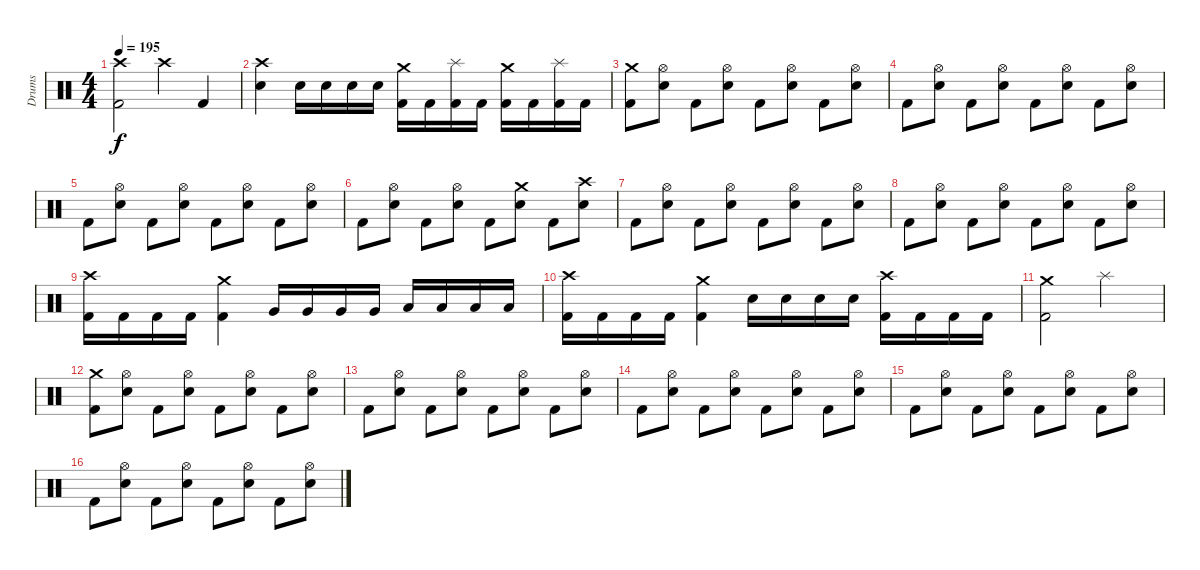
\track ("Drums" "Drums") {instrument percussion}
\staff {score}
\articulation defaults
\ts (4 4)
\tempo 195
\clef neutral
\ks c
("Crash high (hit)" "Kick (hit) 2").2{dy f} "Crash high (hit)".4 "Kick (hit) 2".4 |
("Crash high (hit)" "Snare (hit) 2").4 "Snare (hit) 2".16 "Snare (hit) 2".16 "Snare (hit) 2".16 "Snare (hit) 2".16 ("Crash medium (hit)" "Kick (hit) 2").16 "Kick (hit) 2".16 ("Splash (hit)" "Kick (hit) 2").16 "Kick (hit) 2".16 ("Crash medium (hit)" "Kick (hit) 2").16 "Kick (hit) 2".16 ("Splash (hit)" "Kick (hit) 2").16 "Kick (hit) 2".16 |
("Crash medium (hit)" "Kick (hit) 2").8 ("Hi-Hat (open)" "Snare (hit) 2").8 "Kick (hit) 2".8 ("Hi-Hat (open)" "Snare (hit) 2").8 "Kick (hit) 2".8 ("Hi-Hat (open)" "Snare (hit) 2").8 "Kick (hit) 2".8 ("Hi-Hat (open)" "Snare (hit) 2").8 |
"Kick (hit) 2".8 ("Hi-Hat (open)" "Snare (hit) 2").8 "Kick (hit) 2".8 ("Hi-Hat (open)" "Snare (hit) 2").8 "Kick (hit) 2".8 ("Hi-Hat (open)" "Snare (hit) 2").8 "Kick (hit) 2".8 ("Hi-Hat (open)" "Snare (hit) 2").8 |
"Kick (hit) 2".8 ("Hi-Hat (open)" "Snare (hit) 2").8 "Kick (hit) 2".8 ("Hi-Hat (open)" "Snare (hit) 2").8 "Kick (hit) 2".8 ("Hi-Hat (open)" "Snare (hit) 2").8 "Kick (hit) 2".8 ("Hi-Hat (open)" "Snare (hit) 2").8 |
"Kick (hit) 2".8 ("Hi-Hat (open)" "Snare (hit) 2").8 "Kick (hit) 2".8 ("Hi-Hat (open)" "Snare (hit) 2").8 "Kick (hit) 2".8 ("Crash medium (hit)" "Snare (hit) 2").8 "Kick (hit) 2".8 ("Crash high (hit)" "Snare (hit) 2").8 |
"Kick (hit) 2".8 ("Hi-Hat (open)" "Snare (hit) 2").8 "Kick (hit) 2".8 ("Hi-Hat (open)" "Snare (hit) 2").8 "Kick (hit) 2".8 ("Hi-Hat (open)" "Snare (hit) 2").8 "Kick (hit) 2".8 ("Hi-Hat (open)" "Snare (hit) 2").8 |
"Kick (hit) 2".8 ("Hi-Hat (open)" "Snare (hit) 2").8 "Kick (hit) 2".8 ("Hi-Hat (open)" "Snare (hit) 2").8 "Kick (hit) 2".8 ("Hi-Hat (open)" "Snare (hit) 2").8 "Kick (hit) 2".8 ("Hi-Hat (open)" "Snare (hit) 2").8 |
("Crash high (hit)" "Kick (hit) 2").16 "Kick (hit) 2".16 "Kick (hit) 2".16 "Kick (hit) 2".16 ("Crash medium (hit)" "Kick (hit) 2").4 "Very Low Tom (hit)".16 "Very Low Tom (hit)".16 "Very Low Tom (hit)".16 "Very Low Tom (hit)".16 "Low Floor Tom (hit)".16 "Low Floor Tom (hit)".16 "Low Floor Tom (hit)".16 "Low Floor Tom (hit)".16 |
("Crash high (hit)" "Kick (hit) 2").16 "Kick (hit) 2".16 "Kick (hit) 2".16 "Kick (hit) 2".16 ("Crash medium (hit)" "Kick (hit) 2").4 "Snare (hit) 2".16 "Snare (hit) 2".16 "Snare (hit) 2".16 "Snare (hit) 2".16 ("Crash high (hit)" "Kick (hit) 2").16 "Kick (hit) 2".16 "Kick (hit) 2".16 "Kick (hit) 2".16 |
("Crash medium (hit)" "Kick (hit) 2").2 "Splash (hit)".2 |
("Crash medium (hit)" "Kick (hit) 2").8 ("Hi-Hat (open)" "Snare (hit) 2").8 "Kick (hit) 2".8 ("Hi-Hat (open)" "Snare (hit) 2").8 "Kick (hit) 2".8 ("Hi-Hat (open)" "Snare (hit) 2").8 "Kick (hit) 2".8 ("Hi-Hat (open)" "Snare (hit) 2").8 |
"Kick (hit) 2".8 ("Hi-Hat (open)" "Snare (hit) 2").8 "Kick (hit) 2".8 ("Hi-Hat (open)" "Snare (hit) 2").8 "Kick (hit) 2".8 ("Hi-Hat (open)" "Snare (hit) 2").8 "Kick (hit) 2".8 ("Hi-Hat (open)" "Snare (hit) 2").8 |
"Kick (hit) 2".8 ("Hi-Hat (open)" "Snare (hit) 2").8 "Kick (hit) 2".8 ("Hi-Hat (open)" "Snare (hit) 2").8 "Kick (hit) 2".8 ("Hi-Hat (open)" "Snare (hit) 2").8 "Kick (hit) 2".8 ("Hi-Hat (open)" "Snare (hit) 2").8 |
"Kick (hit) 2".8 ("Hi-Hat (open)" "Snare (hit) 2").8 "Kick (hit) 2".8 ("Hi-Hat (open)" "Snare (hit) 2").8 "Kick (hit) 2".8 ("Hi-Hat (open)" "Snare (hit) 2").8 "Kick (hit) 2".8 ("Hi-Hat (open)" "Snare (hit) 2").8 |
"Kick (hit) 2".8 ("Hi-Hat (open)" "Snare (hit) 2").8 "Kick (hit) 2".8 ("Hi-Hat (open)" "Snare (hit) 2").8 "Kick (hit) 2".8 ("Hi-Hat (open)" "Snare (hit) 2").8 "Kick (hit) 2".8 ("Hi-Hat (open)" "Snare (hit) 2").8
